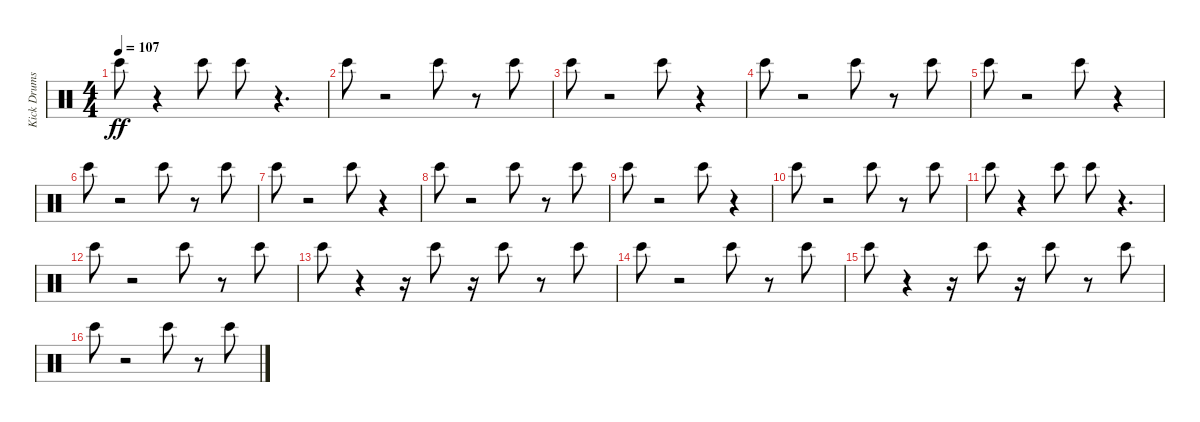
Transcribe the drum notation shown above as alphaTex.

\track ("Kick Drums" "Kick Drums") {instrument percussion}
\staff {score}
\articulation defaults
\ts (4 4)
\tempo 107
\clef neutral
\ks c "Bongo High (hit)".8{dy ff}
r.4 "Bongo High (hit)".8 "Bongo High (hit)".8 r.4{d} |
"Bongo High (hit)".8 r.2 "Bongo High (hit)".8 r.8 "Bongo High (hit)".8 |
"Bongo High (hit)".8 r.2 "Bongo High (hit)".8 r.4 |
"Bongo High (hit)".8 r.2 "Bongo High (hit)".8 r.8 "Bongo High (hit)".8 |
"Bongo High (hit)".8 r.2 "Bongo High (hit)".8 r.4 |
"Bongo High (hit)".8 r.2 "Bongo High (hit)".8 r.8 "Bongo High (hit)".8 |
"Bongo High (hit)".8 r.2 "Bongo High (hit)".8 r.4 |
"Bongo High (hit)".8 r.2 "Bongo High (hit)".8 r.8 "Bongo High (hit)".8 |
"Bongo High (hit)".8 r.2 "Bongo High (hit)".8 r.4 |
"Bongo High (hit)".8 r.2 "Bongo High (hit)".8 r.8 "Bongo High (hit)".8 |
"Bongo High (hit)".8 r.4 "Bongo High (hit)".8 "Bongo High (hit)".8 r.4{d} |
"Bongo High (hit)".8 r.2 "Bongo High (hit)".8 r.8 "Bongo High (hit)".8 |
"Bongo High (hit)".8 r.4 r.16 "Bongo High (hit)".8 r.16 "Bongo High (hit)".8 r.8 "Bongo High (hit)".8 |
"Bongo High (hit)".8 r.2 "Bongo High (hit)".8 r.8 "Bongo High (hit)".8 |
"Bongo High (hit)".8 r.4 r.16 "Bongo High (hit)".8 r.16 "Bongo High (hit)".8 r.8 "Bongo High (hit)".8 |
"Bongo High (hit)".8 r.2 "Bongo High (hit)".8 r.8 "Bongo High (hit)".8
